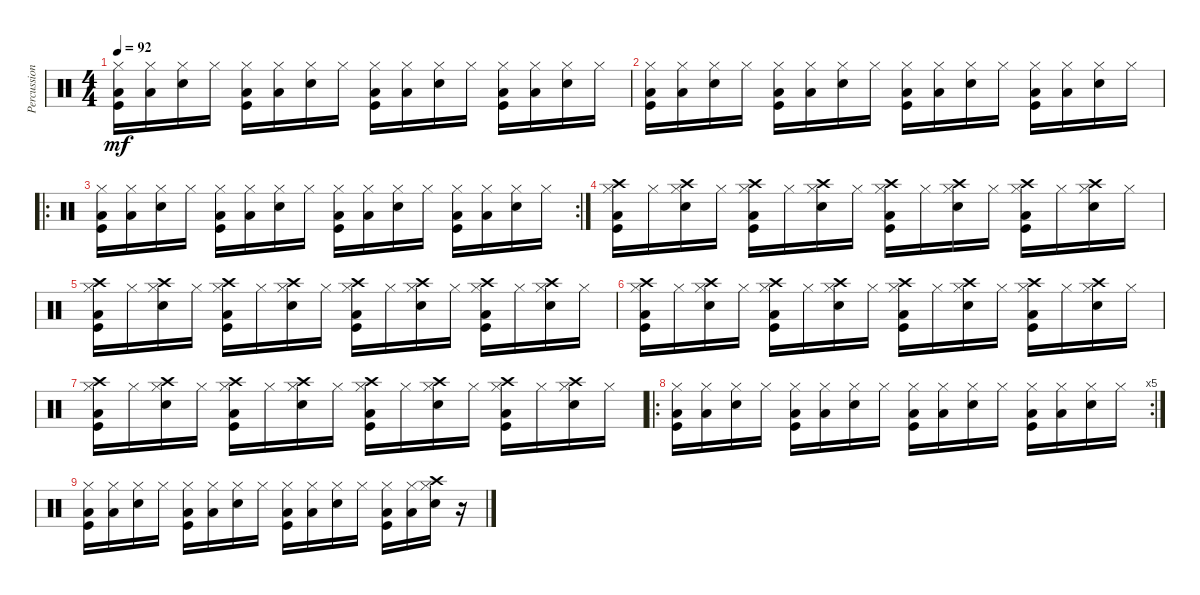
\track ("Percussion" "Percussion") {solo instrument percussion}
\staff {score}
\articulation defaults
\ts (4 4)
\tempo 92
\clef neutral
\ks c
("Hi-Hat (closed)" "Low Tom (hit)" "Kick (hit)").16{dy mf} ("Hi-Hat (closed)" "Low Tom (hit)").16 ("Hi-Hat (closed)" "Snare (hit) 2").16 "Hi-Hat (closed)".16 ("Hi-Hat (closed)" "Low Tom (hit)" "Kick (hit)").16 ("Hi-Hat (closed)" "Low Tom (hit)").16 ("Hi-Hat (closed)" "Snare (hit) 2").16 "Hi-Hat (closed)".16 ("Hi-Hat (closed)" "Low Tom (hit)" "Kick (hit)").16 ("Hi-Hat (closed)" "Low Tom (hit)").16 ("Hi-Hat (closed)" "Snare (hit) 2").16 "Hi-Hat (closed)".16 ("Hi-Hat (closed)" "Low Tom (hit)" "Kick (hit)").16 ("Hi-Hat (closed)" "Low Tom (hit)").16 ("Hi-Hat (closed)" "Snare (hit) 2").16 "Hi-Hat (closed)".16 |
("Hi-Hat (closed)" "Low Tom (hit)" "Kick (hit)").16 ("Hi-Hat (closed)" "Low Tom (hit)").16 ("Hi-Hat (closed)" "Snare (hit) 2").16 "Hi-Hat (closed)".16 ("Hi-Hat (closed)" "Low Tom (hit)" "Kick (hit)").16 ("Hi-Hat (closed)" "Low Tom (hit)").16 ("Hi-Hat (closed)" "Snare (hit) 2").16 "Hi-Hat (closed)".16 ("Hi-Hat (closed)" "Low Tom (hit)" "Kick (hit)").16 ("Hi-Hat (closed)" "Low Tom (hit)").16 ("Hi-Hat (closed)" "Snare (hit) 2").16 "Hi-Hat (closed)".16 ("Hi-Hat (closed)" "Low Tom (hit)" "Kick (hit)").16 ("Hi-Hat (closed)" "Low Tom (hit)").16 ("Hi-Hat (closed)" "Snare (hit) 2").16 "Hi-Hat (closed)".16 |
\ro
\rc 2
("Hi-Hat (closed)" "Low Tom (hit)" "Kick (hit)").16 ("Hi-Hat (closed)" "Low Tom (hit)").16 ("Hi-Hat (closed)" "Snare (hit) 2").16 "Hi-Hat (closed)".16 ("Hi-Hat (closed)" "Low Tom (hit)" "Kick (hit)").16 ("Hi-Hat (closed)" "Low Tom (hit)").16 ("Hi-Hat (closed)" "Snare (hit) 2").16 "Hi-Hat (closed)".16 ("Hi-Hat (closed)" "Low Tom (hit)" "Kick (hit)").16 ("Hi-Hat (closed)" "Low Tom (hit)").16 ("Hi-Hat (closed)" "Snare (hit) 2").16 "Hi-Hat (closed)".16 ("Hi-Hat (closed)" "Low Tom (hit)" "Kick (hit)").16 ("Hi-Hat (closed)" "Low Tom (hit)").16 ("Hi-Hat (closed)" "Snare (hit) 2").16 "Hi-Hat (closed)".16 |
("Hi-Hat (closed)" "Crash high (hit)" "Low Tom (hit)" "Kick (hit)").16 "Hi-Hat (closed)".16 ("Hi-Hat (closed)" "Crash high (hit)" "Snare (hit) 2").16 "Hi-Hat (closed)".16 ("Hi-Hat (closed)" "Crash high (hit)" "Low Tom (hit)" "Kick (hit)").16 "Hi-Hat (closed)".16 ("Hi-Hat (closed)" "Crash high (hit)" "Snare (hit) 2").16 "Hi-Hat (closed)".16 ("Hi-Hat (closed)" "Crash high (hit)" "Low Tom (hit)" "Kick (hit)").16 "Hi-Hat (closed)".16 ("Hi-Hat (closed)" "Crash high (hit)" "Snare (hit) 2").16 "Hi-Hat (closed)".16 ("Hi-Hat (closed)" "Crash high (hit)" "Low Tom (hit)" "Kick (hit)").16 "Hi-Hat (closed)".16 ("Hi-Hat (closed)" "Crash high (hit)" "Snare (hit) 2").16 "Hi-Hat (closed)".16 |
("Hi-Hat (closed)" "Crash high (hit)" "Low Tom (hit)" "Kick (hit)").16 "Hi-Hat (closed)".16 ("Hi-Hat (closed)" "Crash high (hit)" "Snare (hit) 2").16 "Hi-Hat (closed)".16 ("Hi-Hat (closed)" "Crash high (hit)" "Low Tom (hit)" "Kick (hit)").16 "Hi-Hat (closed)".16 ("Hi-Hat (closed)" "Crash high (hit)" "Snare (hit) 2").16 "Hi-Hat (closed)".16 ("Hi-Hat (closed)" "Crash high (hit)" "Low Tom (hit)" "Kick (hit)").16 "Hi-Hat (closed)".16 ("Hi-Hat (closed)" "Crash high (hit)" "Snare (hit) 2").16 "Hi-Hat (closed)".16 ("Hi-Hat (closed)" "Crash high (hit)" "Low Tom (hit)" "Kick (hit)").16 "Hi-Hat (closed)".16 ("Hi-Hat (closed)" "Crash high (hit)" "Snare (hit) 2").16 "Hi-Hat (closed)".16 |
("Hi-Hat (closed)" "Crash high (hit)" "Low Tom (hit)" "Kick (hit)").16 "Hi-Hat (closed)".16 ("Hi-Hat (closed)" "Crash high (hit)" "Snare (hit) 2").16 "Hi-Hat (closed)".16 ("Hi-Hat (closed)" "Crash high (hit)" "Low Tom (hit)" "Kick (hit)").16 "Hi-Hat (closed)".16 ("Hi-Hat (closed)" "Crash high (hit)" "Snare (hit) 2").16 "Hi-Hat (closed)".16 ("Hi-Hat (closed)" "Crash high (hit)" "Low Tom (hit)" "Kick (hit)").16 "Hi-Hat (closed)".16 ("Hi-Hat (closed)" "Crash high (hit)" "Snare (hit) 2").16 "Hi-Hat (closed)".16 ("Hi-Hat (closed)" "Crash high (hit)" "Low Tom (hit)" "Kick (hit)").16 "Hi-Hat (closed)".16 ("Hi-Hat (closed)" "Crash high (hit)" "Snare (hit) 2").16 "Hi-Hat (closed)".16 |
("Hi-Hat (closed)" "Crash high (hit)" "Low Tom (hit)" "Kick (hit)").16 "Hi-Hat (closed)".16 ("Hi-Hat (closed)" "Crash high (hit)" "Snare (hit) 2").16 "Hi-Hat (closed)".16 ("Hi-Hat (closed)" "Crash high (hit)" "Low Tom (hit)" "Kick (hit)").16 "Hi-Hat (closed)".16 ("Hi-Hat (closed)" "Crash high (hit)" "Snare (hit) 2").16 "Hi-Hat (closed)".16 ("Hi-Hat (closed)" "Crash high (hit)" "Low Tom (hit)" "Kick (hit)").16 "Hi-Hat (closed)".16 ("Hi-Hat (closed)" "Crash high (hit)" "Snare (hit) 2").16 "Hi-Hat (closed)".16 ("Hi-Hat (closed)" "Crash high (hit)" "Low Tom (hit)" "Kick (hit)").16 "Hi-Hat (closed)".16 ("Hi-Hat (closed)" "Crash high (hit)" "Snare (hit) 2").16 "Hi-Hat (closed)".16 |
\ro
\rc 5
("Hi-Hat (closed)" "Low Tom (hit)" "Kick (hit)").16 ("Hi-Hat (closed)" "Low Tom (hit)").16 ("Hi-Hat (closed)" "Snare (hit) 2").16 "Hi-Hat (closed)".16 ("Hi-Hat (closed)" "Low Tom (hit)" "Kick (hit)").16 ("Hi-Hat (closed)" "Low Tom (hit)").16 ("Hi-Hat (closed)" "Snare (hit) 2").16 "Hi-Hat (closed)".16 ("Hi-Hat (closed)" "Low Tom (hit)" "Kick (hit)").16 ("Hi-Hat (closed)" "Low Tom (hit)").16 ("Hi-Hat (closed)" "Snare (hit) 2").16 "Hi-Hat (closed)".16 ("Hi-Hat (closed)" "Low Tom (hit)" "Kick (hit)").16 ("Hi-Hat (closed)" "Low Tom (hit)").16 ("Hi-Hat (closed)" "Snare (hit) 2").16 "Hi-Hat (closed)".16 |
("Hi-Hat (closed)" "Low Tom (hit)" "Kick (hit)").16 ("Hi-Hat (closed)" "Low Tom (hit)").16 ("Hi-Hat (closed)" "Snare (hit) 2").16 "Hi-Hat (closed)".16 ("Hi-Hat (closed)" "Low Tom (hit)" "Kick (hit)").16 ("Hi-Hat (closed)" "Low Tom (hit)").16 ("Hi-Hat (closed)" "Snare (hit) 2").16 "Hi-Hat (closed)".16 ("Hi-Hat (closed)" "Low Tom (hit)" "Kick (hit)").16 ("Hi-Hat (closed)" "Low Tom (hit)").16 ("Hi-Hat (closed)" "Snare (hit) 2").16 "Hi-Hat (closed)".16 ("Hi-Hat (closed)" "Low Tom (hit)" "Kick (hit)").16 ("Hi-Hat (closed)" "Low Tom (hit)").16 ("Hi-Hat (closed)" "Crash high (hit)" "Snare (hit) 2").16 r.16
